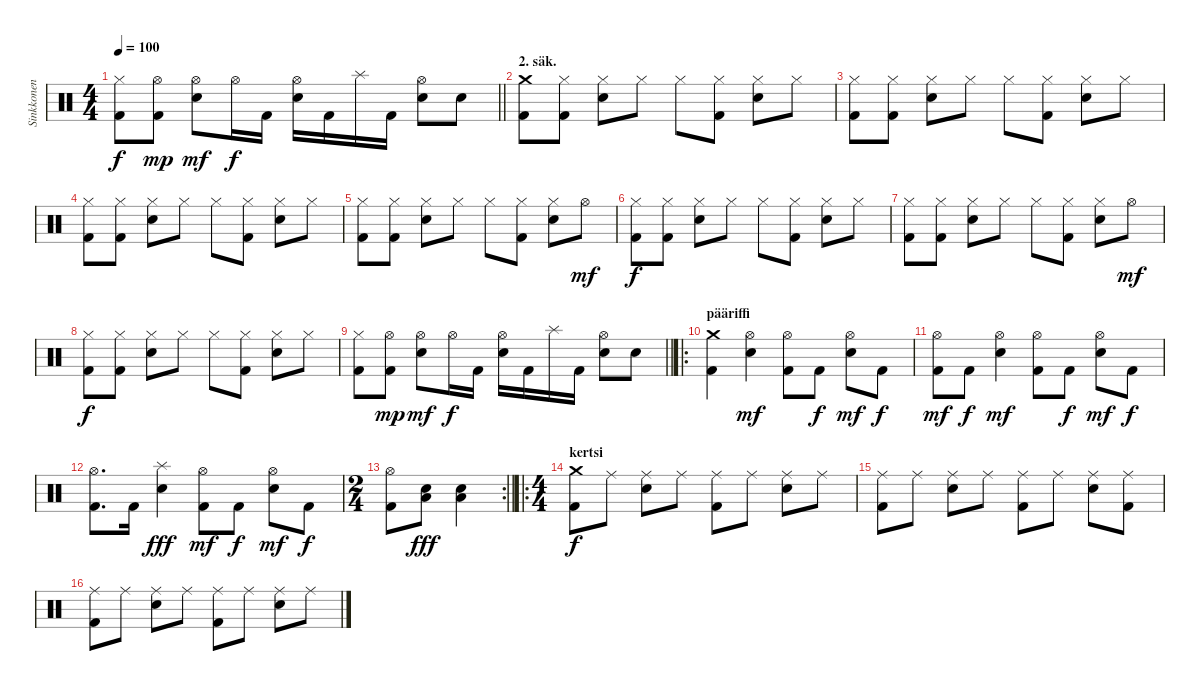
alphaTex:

\track ("Sinkkonen" "Sinkkonen") {instrument percussion}
\staff {score}
\articulation defaults
\ts (4 4)
\tempo 100
\clef neutral
\barLineRight lightlight
\ks c
("Kick (hit) 2" "Hi-Hat (closed)").8{dy f} ("Kick (hit) 2" "Hi-Hat (open)").8{dy mp} ("Hi-Hat (open)" "Electric Snare (hit)").8{dy mf} "Hi-Hat (open)".16{dy f} "Kick (hit) 2".16 ("Hi-Hat (open)" "Electric Snare (hit)").16 "Kick (hit) 2".16 "Splash (hit)".16 "Kick (hit) 2".16 ("Hi-Hat (open)" "Electric Snare (hit)").8 "Electric Snare (hit)".8 |
\section ("" "2. säk.")
("Kick (hit) 2" "Crash medium (hit)").8 ("Kick (hit) 2" "Hi-Hat (closed)").8 ("Hi-Hat (closed)" "Electric Snare (hit)").8 "Hi-Hat (closed)".8 "Hi-Hat (closed)".8 ("Kick (hit) 2" "Hi-Hat (closed)").8 ("Hi-Hat (closed)" "Electric Snare (hit)").8 "Hi-Hat (closed)".8 |
("Kick (hit) 2" "Hi-Hat (closed)").8 ("Kick (hit) 2" "Hi-Hat (closed)").8 ("Hi-Hat (closed)" "Electric Snare (hit)").8 "Hi-Hat (closed)".8 "Hi-Hat (closed)".8 ("Kick (hit) 2" "Hi-Hat (closed)").8 ("Hi-Hat (closed)" "Electric Snare (hit)").8 "Hi-Hat (closed)".8 |
("Kick (hit) 2" "Hi-Hat (closed)").8 ("Kick (hit) 2" "Hi-Hat (closed)").8 ("Hi-Hat (closed)" "Electric Snare (hit)").8 "Hi-Hat (closed)".8 "Hi-Hat (closed)".8 ("Kick (hit) 2" "Hi-Hat (closed)").8 ("Hi-Hat (closed)" "Electric Snare (hit)").8 "Hi-Hat (closed)".8 |
("Kick (hit) 2" "Hi-Hat (closed)").8 ("Kick (hit) 2" "Hi-Hat (closed)").8 ("Hi-Hat (closed)" "Electric Snare (hit)").8 "Hi-Hat (closed)".8 "Hi-Hat (closed)".8 ("Kick (hit) 2" "Hi-Hat (closed)").8 ("Hi-Hat (closed)" "Electric Snare (hit)").8 "Hi-Hat (open)".8{dy mf} |
("Kick (hit) 2" "Hi-Hat (closed)").8{dy f} ("Kick (hit) 2" "Hi-Hat (closed)").8 ("Hi-Hat (closed)" "Electric Snare (hit)").8 "Hi-Hat (closed)".8 "Hi-Hat (closed)".8 ("Kick (hit) 2" "Hi-Hat (closed)").8 ("Hi-Hat (closed)" "Electric Snare (hit)").8 "Hi-Hat (closed)".8 |
("Kick (hit) 2" "Hi-Hat (closed)").8 ("Kick (hit) 2" "Hi-Hat (closed)").8 ("Hi-Hat (closed)" "Electric Snare (hit)").8 "Hi-Hat (closed)".8 "Hi-Hat (closed)".8 ("Kick (hit) 2" "Hi-Hat (closed)").8 ("Hi-Hat (closed)" "Electric Snare (hit)").8 "Hi-Hat (open)".8{dy mf} |
("Kick (hit) 2" "Hi-Hat (closed)").8{dy f} ("Kick (hit) 2" "Hi-Hat (closed)").8 ("Hi-Hat (closed)" "Electric Snare (hit)").8 "Hi-Hat (closed)".8 "Hi-Hat (closed)".8 ("Kick (hit) 2" "Hi-Hat (closed)").8 ("Hi-Hat (closed)" "Electric Snare (hit)").8 "Hi-Hat (closed)".8 |
\barLineRight lightlight
("Kick (hit) 2" "Hi-Hat (closed)").8 ("Kick (hit) 2" "Hi-Hat (open)").8{dy mp} ("Hi-Hat (open)" "Electric Snare (hit)").8{dy mf} "Hi-Hat (open)".16{dy f} "Kick (hit) 2".16 ("Hi-Hat (open)" "Electric Snare (hit)").16 "Kick (hit) 2".16 "Splash (hit)".16 "Kick (hit) 2".16 ("Hi-Hat (open)" "Electric Snare (hit)").8 "Electric Snare (hit)".8 |
\ro
\section ("" "pääriffi")
("Kick (hit) 2" "Crash medium (hit)").4 ("Hi-Hat (open)" "Electric Snare (hit)").4{dy mf} ("Kick (hit) 2" "Hi-Hat (open)").8 "Kick (hit) 2".8{dy f} ("Hi-Hat (open)" "Electric Snare (hit)").8{dy mf} "Kick (hit) 2".8{dy f} |
("Kick (hit) 2" "Hi-Hat (open)").8{dy mf} "Kick (hit) 2".8{dy f} ("Hi-Hat (open)" "Electric Snare (hit)").4{dy mf} ("Kick (hit) 2" "Hi-Hat (open)").8 "Kick (hit) 2".8{dy f} ("Hi-Hat (open)" "Electric Snare (hit)").8{dy mf} "Kick (hit) 2".8{dy f} |
("Kick (hit) 2" "Hi-Hat (open)").8{d} "Kick (hit) 2".16 ("Splash (hit)" "Electric Snare (hit)").4{dy fff} ("Kick (hit) 2" "Hi-Hat (open)").8{dy mf} "Kick (hit) 2".8{dy f} ("Hi-Hat (open)" "Electric Snare (hit)").8{dy mf} "Kick (hit) 2".8{dy f} |
\rc 2
\ts (2 4)
\barLineRight lightlight
("Kick (hit) 2" "Hi-Hat (open)").8 ("Low Floor Tom (hit)" "Electric Snare (hit)").8{dy fff} ("Low Floor Tom (hit)" "Electric Snare (hit)").4 |
\ro
\ts (4 4)
\section ("" "kertsi")
("Kick (hit) 2" "Crash medium (hit)").8{dy f} "Ride (middle)".8 ("Ride (middle)" "Electric Snare (hit)").8 "Ride (middle)".8 ("Kick (hit) 2" "Ride (middle)").8 "Ride (middle)".8 ("Ride (middle)" "Electric Snare (hit)").8 "Ride (middle)".8 |
("Kick (hit) 2" "Ride (middle)").8 "Ride (middle)".8 ("Ride (middle)" "Electric Snare (hit)").8 "Ride (middle)".8 ("Kick (hit) 2" "Ride (middle)").8 "Ride (middle)".8 ("Ride (middle)" "Electric Snare (hit)").8 ("Kick (hit) 2" "Ride (middle)").8 |
("Kick (hit) 2" "Ride (middle)").8 "Ride (middle)".8 ("Ride (middle)" "Electric Snare (hit)").8 "Ride (middle)".8 ("Kick (hit) 2" "Ride (middle)").8 "Ride (middle)".8 ("Ride (middle)" "Electric Snare (hit)").8 "Ride (middle)".8
